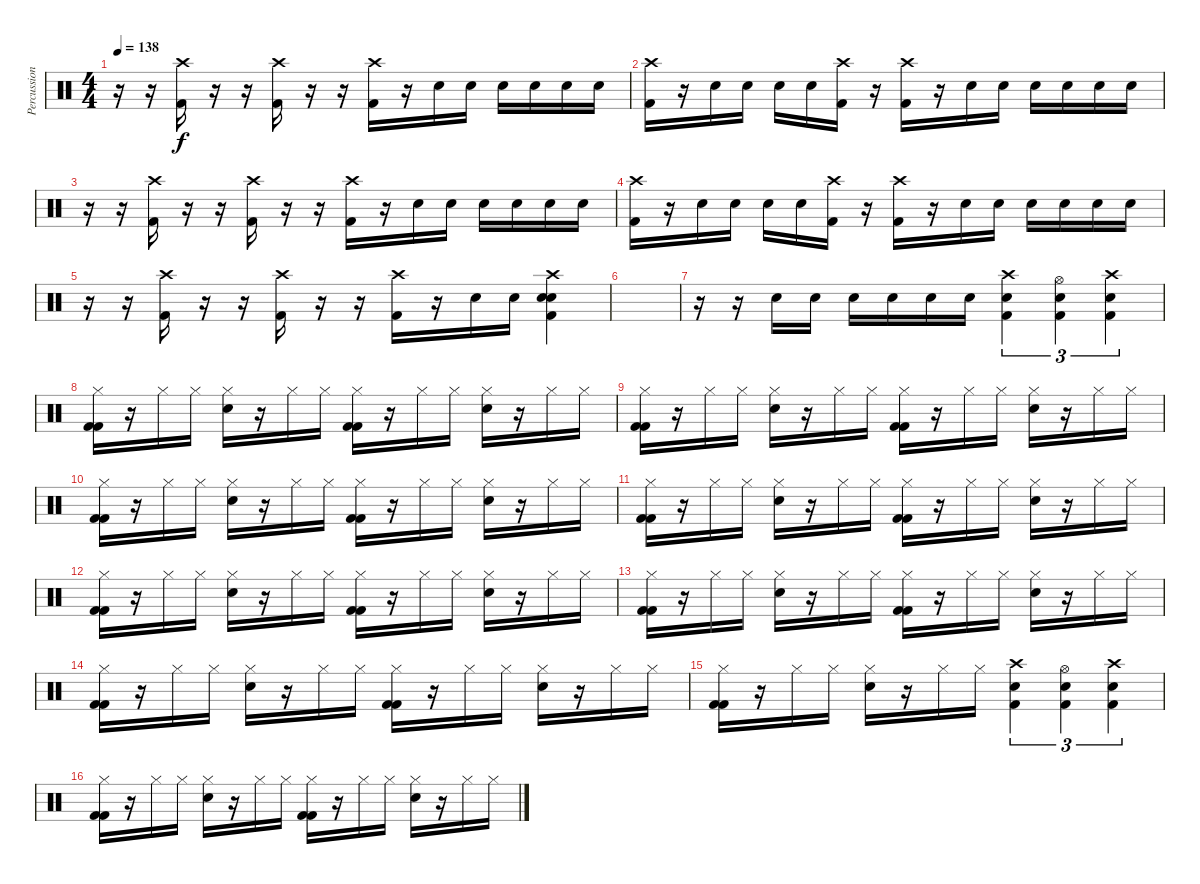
\track ("Percussion" "Percussion") {instrument percussion}
\staff {score}
\articulation defaults
\ts (4 4)
\tempo 138
\clef neutral
\ks c
r.16{dy f} r.16 ("Crash high (hit)" "Kick (hit) 2").16 r.16 r.16 ("Crash high (hit)" "Kick (hit) 2").16 r.16 r.16 ("Crash high (hit)" "Kick (hit) 2").16 r.16 "Snare (hit) 2".16 "Snare (hit) 2".16 "Snare (hit) 2".16 "Snare (hit) 2".16 "Snare (hit) 2".16 "Snare (hit) 2".16 |
("Crash high (hit)" "Kick (hit) 2").16 r.16 "Snare (hit) 2".16 "Snare (hit) 2".16 "Snare (hit) 2".16 "Snare (hit) 2".16 ("Crash high (hit)" "Kick (hit) 2").16 r.16 ("Crash high (hit)" "Kick (hit) 2").16 r.16 "Snare (hit) 2".16 "Snare (hit) 2".16 "Snare (hit) 2".16 "Snare (hit) 2".16 "Snare (hit) 2".16 "Snare (hit) 2".16 |
r.16 r.16 ("Crash high (hit)" "Kick (hit) 2").16 r.16 r.16 ("Crash high (hit)" "Kick (hit) 2").16 r.16 r.16 ("Crash high (hit)" "Kick (hit) 2").16 r.16 "Snare (hit) 2".16 "Snare (hit) 2".16 "Snare (hit) 2".16 "Snare (hit) 2".16 "Snare (hit) 2".16 "Snare (hit) 2".16 |
("Crash high (hit)" "Kick (hit) 2").16 r.16 "Snare (hit) 2".16 "Snare (hit) 2".16 "Snare (hit) 2".16 "Snare (hit) 2".16 ("Crash high (hit)" "Kick (hit) 2").16 r.16 ("Crash high (hit)" "Kick (hit) 2").16 r.16 "Snare (hit) 2".16 "Snare (hit) 2".16 "Snare (hit) 2".16 "Snare (hit) 2".16 "Snare (hit) 2".16 "Snare (hit) 2".16 |
r.16 r.16 ("Crash high (hit)" "Kick (hit) 2").16 r.16 r.16 ("Crash high (hit)" "Kick (hit) 2").16 r.16 r.16 ("Crash high (hit)" "Kick (hit) 2").16 r.16 "Snare (hit) 2".16 "Snare (hit) 2".16 ("Crash high (hit)" "Snare (hit) 2" "Snare (hit) 2" "Kick (hit) 2").4 |
|
r.16 r.16 "Snare (hit) 2".16 "Snare (hit) 2".16 "Snare (hit) 2".16 "Snare (hit) 2".16 "Snare (hit) 2".16 "Snare (hit) 2".16 ("Crash high (hit)" "Snare (hit) 2" "Kick (hit) 2").4{tu (3 2)} ("Hi-Hat (open)" "Snare (hit) 2" "Kick (hit) 2").4{tu (3 2)} ("Crash high (hit)" "Snare (hit) 2" "Kick (hit) 2").4{tu (3 2)} |
("Hi-Hat (closed)" "Kick (hit) 2" "Kick (hit) 2").16 r.16 "Hi-Hat (closed)".16 "Hi-Hat (closed)".16 ("Hi-Hat (closed)" "Snare (hit) 2").16 r.16 "Hi-Hat (closed)".16 "Hi-Hat (closed)".16 ("Hi-Hat (closed)" "Kick (hit) 2" "Kick (hit) 2").16 r.16 "Hi-Hat (closed)".16 "Hi-Hat (closed)".16 ("Hi-Hat (closed)" "Snare (hit) 2").16 r.16 "Hi-Hat (closed)".16 "Hi-Hat (closed)".16 |
("Hi-Hat (closed)" "Kick (hit) 2" "Kick (hit) 2").16 r.16 "Hi-Hat (closed)".16 "Hi-Hat (closed)".16 ("Hi-Hat (closed)" "Snare (hit) 2").16 r.16 "Hi-Hat (closed)".16 "Hi-Hat (closed)".16 ("Hi-Hat (closed)" "Kick (hit) 2" "Kick (hit) 2").16 r.16 "Hi-Hat (closed)".16 "Hi-Hat (closed)".16 ("Hi-Hat (closed)" "Snare (hit) 2").16 r.16 "Hi-Hat (closed)".16 "Hi-Hat (closed)".16 |
("Hi-Hat (closed)" "Kick (hit) 2" "Kick (hit) 2").16 r.16 "Hi-Hat (closed)".16 "Hi-Hat (closed)".16 ("Hi-Hat (closed)" "Snare (hit) 2").16 r.16 "Hi-Hat (closed)".16 "Hi-Hat (closed)".16 ("Hi-Hat (closed)" "Kick (hit) 2" "Kick (hit) 2").16 r.16 "Hi-Hat (closed)".16 "Hi-Hat (closed)".16 ("Hi-Hat (closed)" "Snare (hit) 2").16 r.16 "Hi-Hat (closed)".16 "Hi-Hat (closed)".16 |
("Hi-Hat (closed)" "Kick (hit) 2" "Kick (hit) 2").16 r.16 "Hi-Hat (closed)".16 "Hi-Hat (closed)".16 ("Hi-Hat (closed)" "Snare (hit) 2").16 r.16 "Hi-Hat (closed)".16 "Hi-Hat (closed)".16 ("Hi-Hat (closed)" "Kick (hit) 2" "Kick (hit) 2").16 r.16 "Hi-Hat (closed)".16 "Hi-Hat (closed)".16 ("Hi-Hat (closed)" "Snare (hit) 2").16 r.16 "Hi-Hat (closed)".16 "Hi-Hat (closed)".16 |
("Hi-Hat (closed)" "Kick (hit) 2" "Kick (hit) 2").16 r.16 "Hi-Hat (closed)".16 "Hi-Hat (closed)".16 ("Hi-Hat (closed)" "Snare (hit) 2").16 r.16 "Hi-Hat (closed)".16 "Hi-Hat (closed)".16 ("Hi-Hat (closed)" "Kick (hit) 2" "Kick (hit) 2").16 r.16 "Hi-Hat (closed)".16 "Hi-Hat (closed)".16 ("Hi-Hat (closed)" "Snare (hit) 2").16 r.16 "Hi-Hat (closed)".16 "Hi-Hat (closed)".16 |
("Hi-Hat (closed)" "Kick (hit) 2" "Kick (hit) 2").16 r.16 "Hi-Hat (closed)".16 "Hi-Hat (closed)".16 ("Hi-Hat (closed)" "Snare (hit) 2").16 r.16 "Hi-Hat (closed)".16 "Hi-Hat (closed)".16 ("Hi-Hat (closed)" "Kick (hit) 2" "Kick (hit) 2").16 r.16 "Hi-Hat (closed)".16 "Hi-Hat (closed)".16 ("Hi-Hat (closed)" "Snare (hit) 2").16 r.16 "Hi-Hat (closed)".16 "Hi-Hat (closed)".16 |
("Hi-Hat (closed)" "Kick (hit) 2" "Kick (hit) 2").16 r.16 "Hi-Hat (closed)".16 "Hi-Hat (closed)".16 ("Hi-Hat (closed)" "Snare (hit) 2").16 r.16 "Hi-Hat (closed)".16 "Hi-Hat (closed)".16 ("Hi-Hat (closed)" "Kick (hit) 2" "Kick (hit) 2").16 r.16 "Hi-Hat (closed)".16 "Hi-Hat (closed)".16 ("Hi-Hat (closed)" "Snare (hit) 2").16 r.16 "Hi-Hat (closed)".16 "Hi-Hat (closed)".16 |
("Hi-Hat (closed)" "Kick (hit) 2" "Kick (hit) 2").16 r.16 "Hi-Hat (closed)".16 "Hi-Hat (closed)".16 ("Hi-Hat (closed)" "Snare (hit) 2").16 r.16 "Hi-Hat (closed)".16 "Hi-Hat (closed)".16 ("Crash high (hit)" "Snare (hit) 2" "Kick (hit) 2").4{tu (3 2)} ("Hi-Hat (open)" "Snare (hit) 2" "Kick (hit) 2").4{tu (3 2)} ("Crash high (hit)" "Snare (hit) 2" "Kick (hit) 2").4{tu (3 2)} |
("Hi-Hat (closed)" "Kick (hit) 2" "Kick (hit) 2").16 r.16 "Hi-Hat (closed)".16 "Hi-Hat (closed)".16 ("Hi-Hat (closed)" "Snare (hit) 2").16 r.16 "Hi-Hat (closed)".16 "Hi-Hat (closed)".16 ("Hi-Hat (closed)" "Kick (hit) 2" "Kick (hit) 2").16 r.16 "Hi-Hat (closed)".16 "Hi-Hat (closed)".16 ("Hi-Hat (closed)" "Snare (hit) 2").16 r.16 "Hi-Hat (closed)".16 "Hi-Hat (closed)".16
